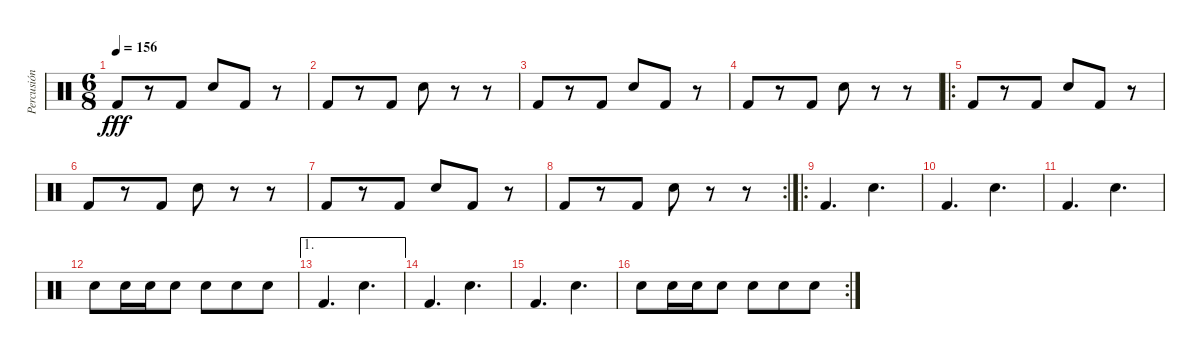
\track ("Percusión" "Percusión") {instrument percussion}
\staff {score}
\articulation defaults
\ts (6 8)
\tempo 156
\clef neutral
\ks c "Kick (hit) 2".8{dy fff}
r.8 "Kick (hit) 2".8 "Snare (hit) 2".8 "Kick (hit) 2".8 r.8 |
"Kick (hit) 2".8 r.8 "Kick (hit) 2".8 "Snare (hit) 2".8 r.8 r.8 |
"Kick (hit) 2".8 r.8 "Kick (hit) 2".8 "Snare (hit) 2".8 "Kick (hit) 2".8 r.8 |
"Kick (hit) 2".8 r.8 "Kick (hit) 2".8 "Snare (hit) 2".8 r.8 r.8 |
\ro "Kick (hit) 2".8
r.8 "Kick (hit) 2".8 "Snare (hit) 2".8 "Kick (hit) 2".8 r.8 |
"Kick (hit) 2".8 r.8 "Kick (hit) 2".8 "Snare (hit) 2".8 r.8 r.8 |
"Kick (hit) 2".8 r.8 "Kick (hit) 2".8 "Snare (hit) 2".8 "Kick (hit) 2".8 r.8 |
\rc 2 "Kick (hit) 2".8
r.8 "Kick (hit) 2".8 "Snare (hit) 2".8 r.8 r.8 |
\ro "Kick (hit) 2".4{d} "Snare (hit) 2".4{d}
|
"Kick (hit) 2".4{d} "Snare (hit) 2".4{d} |
"Kick (hit) 2".4{d} "Snare (hit) 2".4{d} |
"Snare (hit) 2".8 "Snare (hit) 2".16 "Snare (hit) 2".16 "Snare (hit) 2".8 "Snare (hit) 2".8 "Snare (hit) 2".8 "Snare (hit) 2".8 |
\ae 1 "Kick (hit) 2".4{d} "Snare (hit) 2".4{d}
|
"Kick (hit) 2".4{d} "Snare (hit) 2".4{d} |
"Kick (hit) 2".4{d} "Snare (hit) 2".4{d} |
\rc 2 "Snare (hit) 2".8 "Snare (hit) 2".16 "Snare (hit) 2".16 "Snare (hit) 2".8 "Snare (hit) 2".8 "Snare (hit) 2".8 "Snare (hit) 2".8
